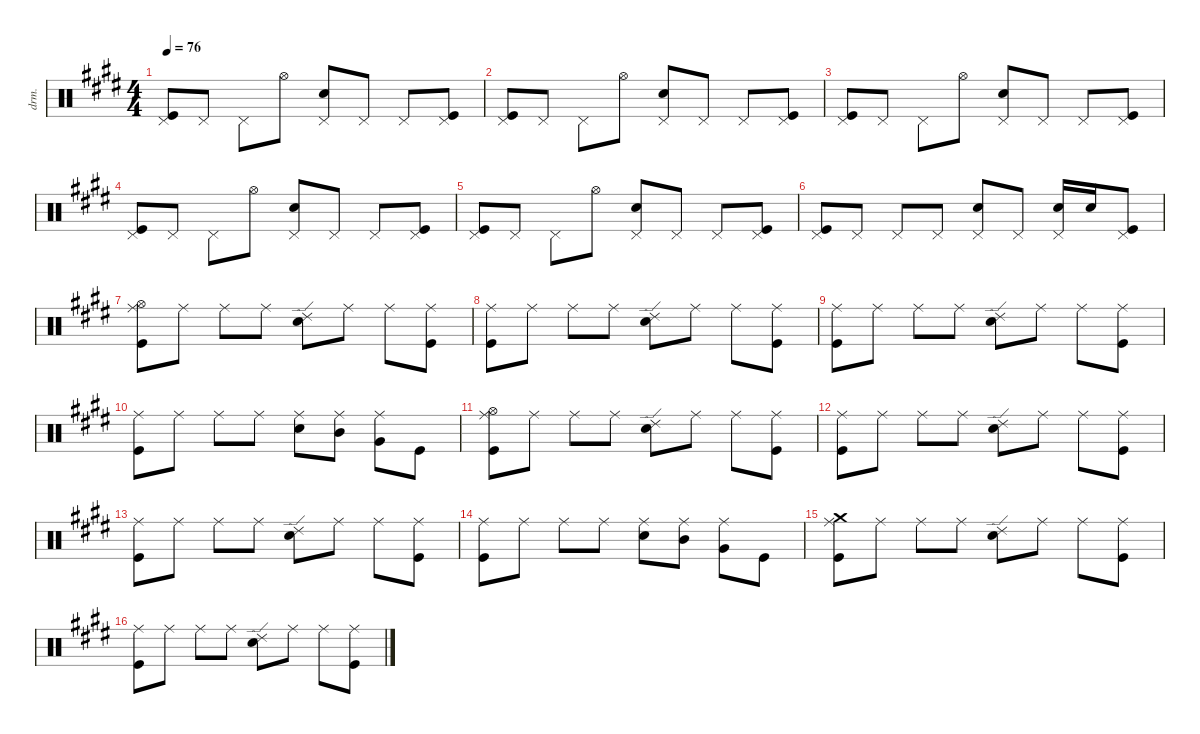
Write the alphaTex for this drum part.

\defaultSystemsLayout 4
\hideDynamics
\bracketExtendMode nobrackets
\otherSystemsTrackNameOrientation horizontal
\track ("Drums" "drm.") {instrument percussion}
\staff {score}
\articulation defaults
\ts (4 4)
\tempo 76
\clef neutral
\ks c#minor
("Pedal Hi-Hat (hit)"{acc forcenatural} "Kick (hit)"{acc forcenatural}).8{dy f} "Pedal Hi-Hat (hit)"{acc forcenatural}.8 "Pedal Hi-Hat (hit)"{acc forcenatural}.8 "Hi-Hat (open)"{acc forcenatural}.8 ("Snare (hit) 2"{acc forcenatural} "Pedal Hi-Hat (hit)"{acc forcenatural}).8 "Pedal Hi-Hat (hit)"{acc forcenatural}.8 "Pedal Hi-Hat (hit)"{acc forcenatural}.8 ("Kick (hit)"{acc forcenatural} "Pedal Hi-Hat (hit)"{acc forcenatural}).8 |
("Pedal Hi-Hat (hit)"{acc forcenatural} "Kick (hit)"{acc forcenatural}).8 "Pedal Hi-Hat (hit)"{acc forcenatural}.8 "Pedal Hi-Hat (hit)"{acc forcenatural}.8 "Hi-Hat (open)"{acc forcenatural}.8 ("Snare (hit) 2"{acc forcenatural} "Pedal Hi-Hat (hit)"{acc forcenatural}).8 "Pedal Hi-Hat (hit)"{acc forcenatural}.8 "Pedal Hi-Hat (hit)"{acc forcenatural}.8 ("Kick (hit)"{acc forcenatural} "Pedal Hi-Hat (hit)"{acc forcenatural}).8 |
("Pedal Hi-Hat (hit)"{acc forcenatural} "Kick (hit)"{acc forcenatural}).8 "Pedal Hi-Hat (hit)"{acc forcenatural}.8 "Pedal Hi-Hat (hit)"{acc forcenatural}.8 "Hi-Hat (open)"{acc forcenatural}.8 ("Snare (hit) 2"{acc forcenatural} "Pedal Hi-Hat (hit)"{acc forcenatural}).8 "Pedal Hi-Hat (hit)"{acc forcenatural}.8 "Pedal Hi-Hat (hit)"{acc forcenatural}.8 ("Kick (hit)"{acc forcenatural} "Pedal Hi-Hat (hit)"{acc forcenatural}).8 |
("Pedal Hi-Hat (hit)"{acc forcenatural} "Kick (hit)"{acc forcenatural}).8 "Pedal Hi-Hat (hit)"{acc forcenatural}.8 "Pedal Hi-Hat (hit)"{acc forcenatural}.8 "Hi-Hat (open)"{acc forcenatural}.8 ("Snare (hit) 2"{acc forcenatural} "Pedal Hi-Hat (hit)"{acc forcenatural}).8 "Pedal Hi-Hat (hit)"{acc forcenatural}.8 "Pedal Hi-Hat (hit)"{acc forcenatural}.8 ("Kick (hit)"{acc forcenatural} "Pedal Hi-Hat (hit)"{acc forcenatural}).8 |
("Pedal Hi-Hat (hit)"{acc forcenatural} "Kick (hit)"{acc forcenatural}).8 "Pedal Hi-Hat (hit)"{acc forcenatural}.8 "Pedal Hi-Hat (hit)"{acc forcenatural}.8 "Hi-Hat (open)"{acc forcenatural}.8 ("Snare (hit) 2"{acc forcenatural} "Pedal Hi-Hat (hit)"{acc forcenatural}).8 "Pedal Hi-Hat (hit)"{acc forcenatural}.8 "Pedal Hi-Hat (hit)"{acc forcenatural}.8 ("Kick (hit)"{acc forcenatural} "Pedal Hi-Hat (hit)"{acc forcenatural}).8 |
("Pedal Hi-Hat (hit)"{acc forcenatural} "Kick (hit)"{acc forcenatural}).8 "Pedal Hi-Hat (hit)"{acc forcenatural}.8 "Pedal Hi-Hat (hit)"{acc forcenatural}.8 "Pedal Hi-Hat (hit)"{acc forcenatural}.8 ("Snare (hit) 2"{acc forcenatural} "Pedal Hi-Hat (hit)"{acc forcenatural}).8 "Pedal Hi-Hat (hit)"{acc forcenatural}.8 ("Snare (hit) 2"{acc forcenatural} "Pedal Hi-Hat (hit)"{acc forcenatural}).16 "Snare (hit) 2"{acc forcenatural}.16 ("Kick (hit)"{acc forcenatural} "Pedal Hi-Hat (hit)"{acc forcenatural}).8 |
("Ride (middle)"{acc forcenatural} "Kick (hit)"{acc forcenatural} "Hi-Hat (open)"{acc forcenatural}).8 "Ride (middle)"{acc forcenatural}.8 "Ride (middle)"{acc forcenatural}.8 "Ride (middle)"{acc forcenatural}.8 ("Snare (hit) 2"{acc forcenatural} "Ride (edge) 2"{acc forcenatural}).8 "Ride (middle)"{acc forcenatural}.8 "Ride (middle)"{acc forcenatural}.8 ("Kick (hit)"{acc forcenatural} "Ride (middle)"{acc forcenatural}).8 |
("Ride (middle)"{acc forcenatural} "Kick (hit)"{acc forcenatural}).8 "Ride (middle)"{acc forcenatural}.8 "Ride (middle)"{acc forcenatural}.8 "Ride (middle)"{acc forcenatural}.8 ("Snare (hit) 2"{acc forcenatural} "Ride (edge) 2"{acc forcenatural}).8 "Ride (middle)"{acc forcenatural}.8 "Ride (middle)"{acc forcenatural}.8 ("Kick (hit)"{acc forcenatural} "Ride (middle)"{acc forcenatural}).8 |
("Ride (middle)"{acc forcenatural} "Kick (hit)"{acc forcenatural}).8 "Ride (middle)"{acc forcenatural}.8 "Ride (middle)"{acc forcenatural}.8 "Ride (middle)"{acc forcenatural}.8 ("Snare (hit) 2"{acc forcenatural} "Ride (edge) 2"{acc forcenatural}).8 "Ride (middle)"{acc forcenatural}.8 "Ride (middle)"{acc forcenatural}.8 ("Kick (hit)"{acc forcenatural} "Ride (middle)"{acc forcenatural}).8 |
("Ride (middle)"{acc forcenatural} "Kick (hit)"{acc forcenatural}).8 "Ride (middle)"{acc forcenatural}.8 "Ride (middle)"{acc forcenatural}.8 "Ride (middle)"{acc forcenatural}.8 ("Ride (middle)"{acc forcenatural} "Snare (hit) 2"{acc forcenatural}).8 ("Ride (middle)"{acc forcenatural} "Mid Tom (hit)"{acc forcenatural}).8 ("Ride (middle)"{acc forcenatural} "Very Low Tom (hit)"{acc forcenatural}).8 "Kick (hit)"{acc forcenatural}.8 |
("Ride (middle)"{acc forcenatural} "Kick (hit)"{acc forcenatural} "Hi-Hat (open)"{acc forcenatural}).8 "Ride (middle)"{acc forcenatural}.8 "Ride (middle)"{acc forcenatural}.8 "Ride (middle)"{acc forcenatural}.8 ("Snare (hit) 2"{acc forcenatural} "Ride (edge) 2"{acc forcenatural}).8 "Ride (middle)"{acc forcenatural}.8 "Ride (middle)"{acc forcenatural}.8 ("Kick (hit)"{acc forcenatural} "Ride (middle)"{acc forcenatural}).8 |
("Ride (middle)"{acc forcenatural} "Kick (hit)"{acc forcenatural}).8 "Ride (middle)"{acc forcenatural}.8 "Ride (middle)"{acc forcenatural}.8 "Ride (middle)"{acc forcenatural}.8 ("Snare (hit) 2"{acc forcenatural} "Ride (edge) 2"{acc forcenatural}).8 "Ride (middle)"{acc forcenatural}.8 "Ride (middle)"{acc forcenatural}.8 ("Kick (hit)"{acc forcenatural} "Ride (middle)"{acc forcenatural}).8 |
("Ride (middle)"{acc forcenatural} "Kick (hit)"{acc forcenatural}).8 "Ride (middle)"{acc forcenatural}.8 "Ride (middle)"{acc forcenatural}.8 "Ride (middle)"{acc forcenatural}.8 ("Snare (hit) 2"{acc forcenatural} "Ride (edge) 2"{acc forcenatural}).8 "Ride (middle)"{acc forcenatural}.8 "Ride (middle)"{acc forcenatural}.8 ("Kick (hit)"{acc forcenatural} "Ride (middle)"{acc forcenatural}).8 |
("Ride (middle)"{acc forcenatural} "Kick (hit)"{acc forcenatural}).8 "Ride (middle)"{acc forcenatural}.8 "Ride (middle)"{acc forcenatural}.8 "Ride (middle)"{acc forcenatural}.8 ("Ride (middle)"{acc forcenatural} "Snare (hit) 2"{acc forcenatural}).8 ("Ride (middle)"{acc forcenatural} "Mid Tom (hit)"{acc forcenatural}).8 ("Ride (middle)"{acc forcenatural} "Very Low Tom (hit)"{acc forcenatural}).8 "Kick (hit)"{acc forcenatural}.8 |
("Ride (middle)"{acc forcenatural} "Kick (hit)"{acc forcenatural} "Crash medium (hit)"{acc forcenatural}).8 "Ride (middle)"{acc forcenatural}.8 "Ride (middle)"{acc forcenatural}.8 "Ride (middle)"{acc forcenatural}.8 ("Snare (hit) 2"{acc forcenatural} "Ride (edge) 2"{acc forcenatural}).8 "Ride (middle)"{acc forcenatural}.8 "Ride (middle)"{acc forcenatural}.8 ("Kick (hit)"{acc forcenatural} "Ride (middle)"{acc forcenatural}).8 |
("Ride (middle)"{acc forcenatural} "Kick (hit)"{acc forcenatural}).8 "Ride (middle)"{acc forcenatural}.8 "Ride (middle)"{acc forcenatural}.8 "Ride (middle)"{acc forcenatural}.8 ("Snare (hit) 2"{acc forcenatural} "Ride (edge) 2"{acc forcenatural}).8 "Ride (middle)"{acc forcenatural}.8 "Ride (middle)"{acc forcenatural}.8 ("Kick (hit)"{acc forcenatural} "Ride (middle)"{acc forcenatural}).8
